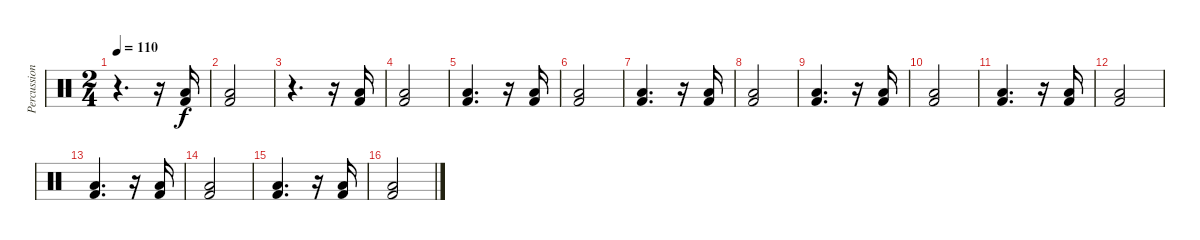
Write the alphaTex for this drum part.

\track ("Percussioni" "Percussion") {instrument percussion}
\staff {score}
\articulation defaults
\ts (2 4)
\tempo 110
\clef neutral
\ks c
r.4{d dy f} r.16 ("Low Floor Tom (hit)" "Kick (hit) 2").16 |
("Low Floor Tom (hit)" "Kick (hit) 2").2 |
r.4{d} r.16 ("Low Floor Tom (hit)" "Kick (hit) 2").16 |
("Low Floor Tom (hit)" "Kick (hit) 2").2 |
("Low Floor Tom (hit)" "Kick (hit) 2").4{d} r.16 ("Low Floor Tom (hit)" "Kick (hit) 2").16 |
("Low Floor Tom (hit)" "Kick (hit) 2").2 |
("Low Floor Tom (hit)" "Kick (hit) 2").4{d} r.16 ("Low Floor Tom (hit)" "Kick (hit) 2").16 |
("Low Floor Tom (hit)" "Kick (hit) 2").2 |
("Low Floor Tom (hit)" "Kick (hit) 2").4{d} r.16 ("Low Floor Tom (hit)" "Kick (hit) 2").16 |
("Low Floor Tom (hit)" "Kick (hit) 2").2 |
("Low Floor Tom (hit)" "Kick (hit) 2").4{d} r.16 ("Low Floor Tom (hit)" "Kick (hit) 2").16 |
("Low Floor Tom (hit)" "Kick (hit) 2").2 |
("Low Floor Tom (hit)" "Kick (hit) 2").4{d} r.16 ("Low Floor Tom (hit)" "Kick (hit) 2").16 |
("Low Floor Tom (hit)" "Kick (hit) 2").2 |
("Low Floor Tom (hit)" "Kick (hit) 2").4{d} r.16 ("Low Floor Tom (hit)" "Kick (hit) 2").16 |
("Low Floor Tom (hit)" "Kick (hit) 2").2
